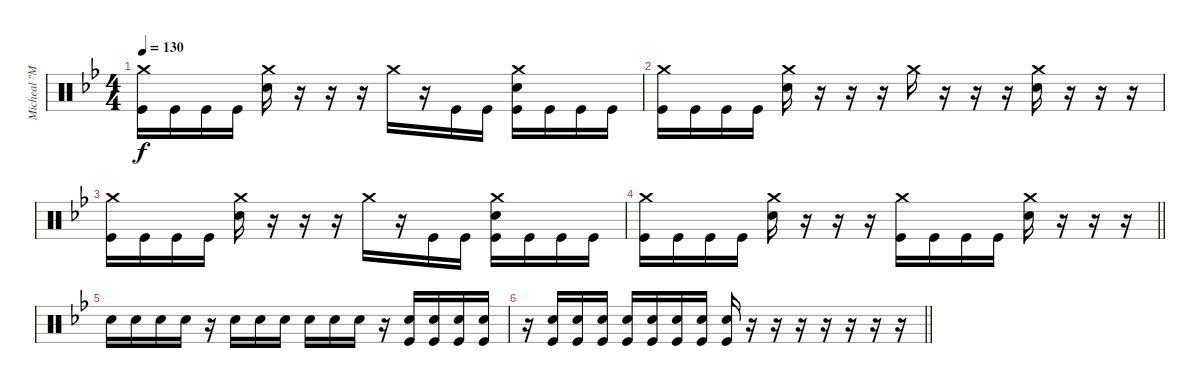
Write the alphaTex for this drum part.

\track ("Micheal \"Moose\" Thomas" "Micheal \"M") {instrument percussion}
\staff {score}
\articulation defaults
\ts (4 4)
\tempo 130
\clef neutral
\ks bb
("Crash medium (hit)" "Kick (hit)").16{dy f} "Kick (hit)".16 "Kick (hit)".16 "Kick (hit)".16 ("Crash medium (hit)" "Snare (hit) 2").16 r.16 r.16 r.16 "Crash medium (hit)".16 r.16 "Kick (hit)".16 "Kick (hit)".16 ("Crash medium (hit)" "Snare (hit) 2" "Kick (hit)").16 "Kick (hit)".16 "Kick (hit)".16 "Kick (hit)".16 |
("Crash medium (hit)" "Kick (hit)").16 "Kick (hit)".16 "Kick (hit)".16 "Kick (hit)".16 ("Crash medium (hit)" "Snare (hit) 2").16 r.16 r.16 r.16 "Crash medium (hit)".16 r.16 r.16 r.16 ("Crash medium (hit)" "Snare (hit) 2").16 r.16 r.16 r.16 |
("Crash medium (hit)" "Kick (hit)").16 "Kick (hit)".16 "Kick (hit)".16 "Kick (hit)".16 ("Crash medium (hit)" "Snare (hit) 2").16 r.16 r.16 r.16 "Crash medium (hit)".16 r.16 "Kick (hit)".16 "Kick (hit)".16 ("Crash medium (hit)" "Snare (hit) 2" "Kick (hit)").16 "Kick (hit)".16 "Kick (hit)".16 "Kick (hit)".16 |
\barLineRight lightlight
("Crash medium (hit)" "Kick (hit)").16 "Kick (hit)".16 "Kick (hit)".16 "Kick (hit)".16 ("Crash medium (hit)" "Snare (hit) 2").16 r.16 r.16 r.16 ("Crash medium (hit)" "Kick (hit)").16 "Kick (hit)".16 "Kick (hit)".16 "Kick (hit)".16 ("Crash medium (hit)" "Snare (hit) 2").16 r.16 r.16 r.16 |
"Snare (hit) 2".16 "Snare (hit) 2".16 "Snare (hit) 2".16 "Snare (hit) 2".16 r.16 "Snare (hit) 2".16 "Snare (hit) 2".16 "Snare (hit) 2".16 "Snare (hit) 2".16 "Snare (hit) 2".16 "Snare (hit) 2".16 r.16 ("Snare (hit) 2" "Kick (hit)").16 ("Snare (hit) 2" "Kick (hit)").16 ("Snare (hit) 2" "Kick (hit)").16 ("Snare (hit) 2" "Kick (hit)").16 |
\barLineRight lightlight
r.16 ("Snare (hit) 2" "Kick (hit)").16 ("Snare (hit) 2" "Kick (hit)").16 ("Snare (hit) 2" "Kick (hit)").16 ("Snare (hit) 2" "Kick (hit)").16 ("Snare (hit) 2" "Kick (hit)").16 ("Snare (hit) 2" "Kick (hit)").16 ("Snare (hit) 2" "Kick (hit)").16 ("Snare (hit) 2" "Kick (hit)").16 r.16 r.16 r.16 r.16 r.16 r.16 r.16
